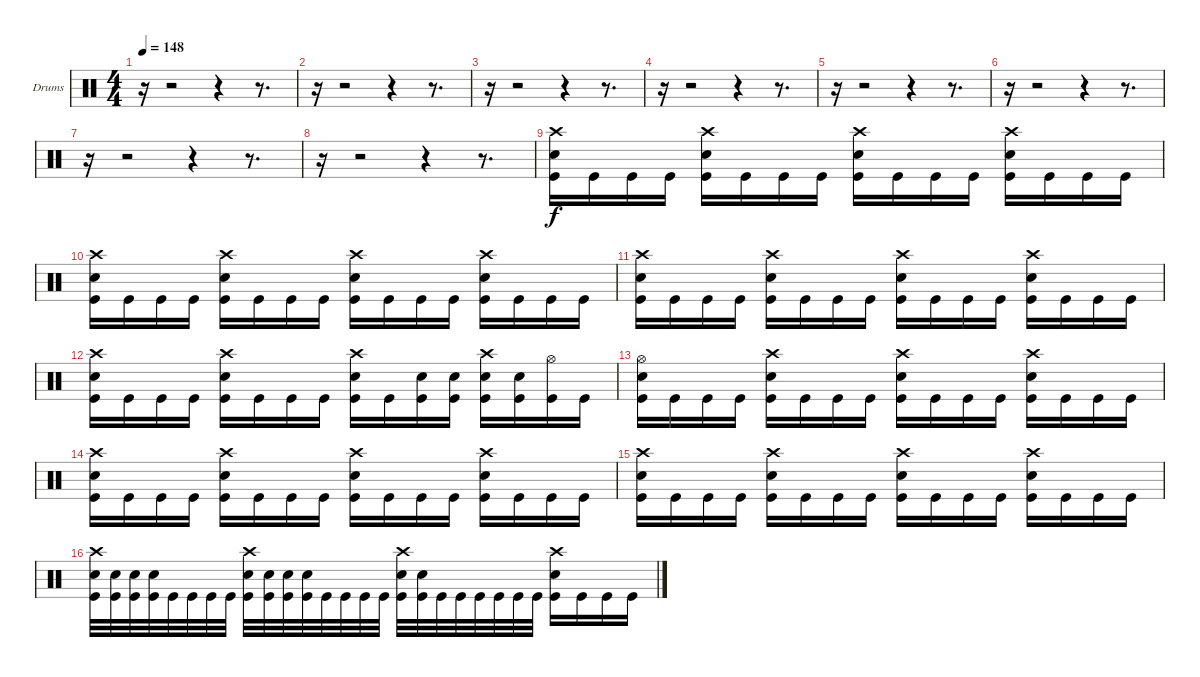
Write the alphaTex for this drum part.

\bracketExtendMode groupsimilarinstruments
\firstSystemTrackNameOrientation horizontal
\otherSystemsTrackNameOrientation horizontal
\track ("Drumkit" "Drums") {instrument percussion}
\staff {score}
\articulation defaults
\ts (4 4)
\tempo 148
\clef neutral
\ks c
r.16{dy f} r.2 r.4 r.8{d} |
r.16 r.2 r.4 r.8{d} |
r.16 r.2 r.4 r.8{d} |
r.16 r.2 r.4 r.8{d} |
r.16 r.2 r.4 r.8{d} |
r.16 r.2 r.4 r.8{d} |
r.16 r.2 r.4 r.8{d} |
r.16 r.2 r.4 r.8{d} |
("Crash high (hit)" "Snare (hit) 2" "Kick (hit)").16 "Kick (hit)".16 "Kick (hit)".16 "Kick (hit)".16 ("Crash high (hit)" "Snare (hit) 2" "Kick (hit)").16 "Kick (hit)".16 "Kick (hit)".16 "Kick (hit)".16 ("Crash high (hit)" "Snare (hit) 2" "Kick (hit)").16 "Kick (hit)".16 "Kick (hit)".16 "Kick (hit)".16 ("Crash high (hit)" "Snare (hit) 2" "Kick (hit)").16 "Kick (hit)".16 "Kick (hit)".16 "Kick (hit)".16 |
("Crash high (hit)" "Snare (hit) 2" "Kick (hit)").16 "Kick (hit)".16 "Kick (hit)".16 "Kick (hit)".16 ("Crash high (hit)" "Snare (hit) 2" "Kick (hit)").16 "Kick (hit)".16 "Kick (hit)".16 "Kick (hit)".16 ("Crash high (hit)" "Snare (hit) 2" "Kick (hit)").16 "Kick (hit)".16 "Kick (hit)".16 "Kick (hit)".16 ("Crash high (hit)" "Snare (hit) 2" "Kick (hit)").16 "Kick (hit)".16 "Kick (hit)".16 "Kick (hit)".16 |
("Crash high (hit)" "Snare (hit) 2" "Kick (hit)").16 "Kick (hit)".16 "Kick (hit)".16 "Kick (hit)".16 ("Crash high (hit)" "Snare (hit) 2" "Kick (hit)").16 "Kick (hit)".16 "Kick (hit)".16 "Kick (hit)".16 ("Crash high (hit)" "Snare (hit) 2" "Kick (hit)").16 "Kick (hit)".16 "Kick (hit)".16 "Kick (hit)".16 ("Crash high (hit)" "Snare (hit) 2" "Kick (hit)").16 "Kick (hit)".16 "Kick (hit)".16 "Kick (hit)".16 |
("Crash high (hit)" "Snare (hit) 2" "Kick (hit)").16 "Kick (hit)".16 "Kick (hit)".16 "Kick (hit)".16 ("Crash high (hit)" "Snare (hit) 2" "Kick (hit)").16 "Kick (hit)".16 "Kick (hit)".16 "Kick (hit)".16 ("Crash high (hit)" "Snare (hit) 2" "Kick (hit)").16 "Kick (hit)".16 ("Snare (hit) 2" "Kick (hit)").16 ("Snare (hit) 2" "Kick (hit)").16 ("Crash high (hit)" "Snare (hit) 2" "Kick (hit)").16 ("Snare (hit) 2" "Kick (hit)").16 ("Hi-Hat (open)" "Kick (hit)").16 "Kick (hit)".16 |
("Hi-Hat (open)" "Snare (hit) 2" "Kick (hit)").16 "Kick (hit)".16 "Kick (hit)".16 "Kick (hit)".16 ("Crash high (hit)" "Snare (hit) 2" "Kick (hit)").16 "Kick (hit)".16 "Kick (hit)".16 "Kick (hit)".16 ("Crash high (hit)" "Snare (hit) 2" "Kick (hit)").16 "Kick (hit)".16 "Kick (hit)".16 "Kick (hit)".16 ("Crash high (hit)" "Snare (hit) 2" "Kick (hit)").16 "Kick (hit)".16 "Kick (hit)".16 "Kick (hit)".16 |
("Crash high (hit)" "Snare (hit) 2" "Kick (hit)").16 "Kick (hit)".16 "Kick (hit)".16 "Kick (hit)".16 ("Crash high (hit)" "Snare (hit) 2" "Kick (hit)").16 "Kick (hit)".16 "Kick (hit)".16 "Kick (hit)".16 ("Crash high (hit)" "Snare (hit) 2" "Kick (hit)").16 "Kick (hit)".16 "Kick (hit)".16 "Kick (hit)".16 ("Crash high (hit)" "Snare (hit) 2" "Kick (hit)").16 "Kick (hit)".16 "Kick (hit)".16 "Kick (hit)".16 |
("Crash high (hit)" "Snare (hit) 2" "Kick (hit)").16 "Kick (hit)".16 "Kick (hit)".16 "Kick (hit)".16 ("Crash high (hit)" "Snare (hit) 2" "Kick (hit)").16 "Kick (hit)".16 "Kick (hit)".16 "Kick (hit)".16 ("Crash high (hit)" "Snare (hit) 2" "Kick (hit)").16 "Kick (hit)".16 "Kick (hit)".16 "Kick (hit)".16 ("Crash high (hit)" "Snare (hit) 2" "Kick (hit)").16 "Kick (hit)".16 "Kick (hit)".16 "Kick (hit)".16 |
("Crash high (hit)" "Snare (hit) 2" "Kick (hit)").32 ("Snare (hit) 2" "Kick (hit)").32 ("Snare (hit) 2" "Kick (hit)").32 ("Snare (hit) 2" "Kick (hit)").32 "Kick (hit)".32 "Kick (hit)".32 "Kick (hit)".32 "Kick (hit)".32 ("Crash high (hit)" "Snare (hit) 2" "Kick (hit)").32 ("Snare (hit) 2" "Kick (hit)").32 ("Snare (hit) 2" "Kick (hit)").32 ("Snare (hit) 2" "Kick (hit)").32 "Kick (hit)".32 "Kick (hit)".32 "Kick (hit)".32 "Kick (hit)".32 ("Crash high (hit)" "Snare (hit) 2" "Kick (hit)").32 ("Snare (hit) 2" "Kick (hit)").32 "Kick (hit)".32 "Kick (hit)".32 "Kick (hit)".32 "Kick (hit)".32 "Kick (hit)".32 "Kick (hit)".32 ("Crash high (hit)" "Snare (hit) 2" "Kick (hit)").16 "Kick (hit)".16 "Kick (hit)".16 "Kick (hit)".16
